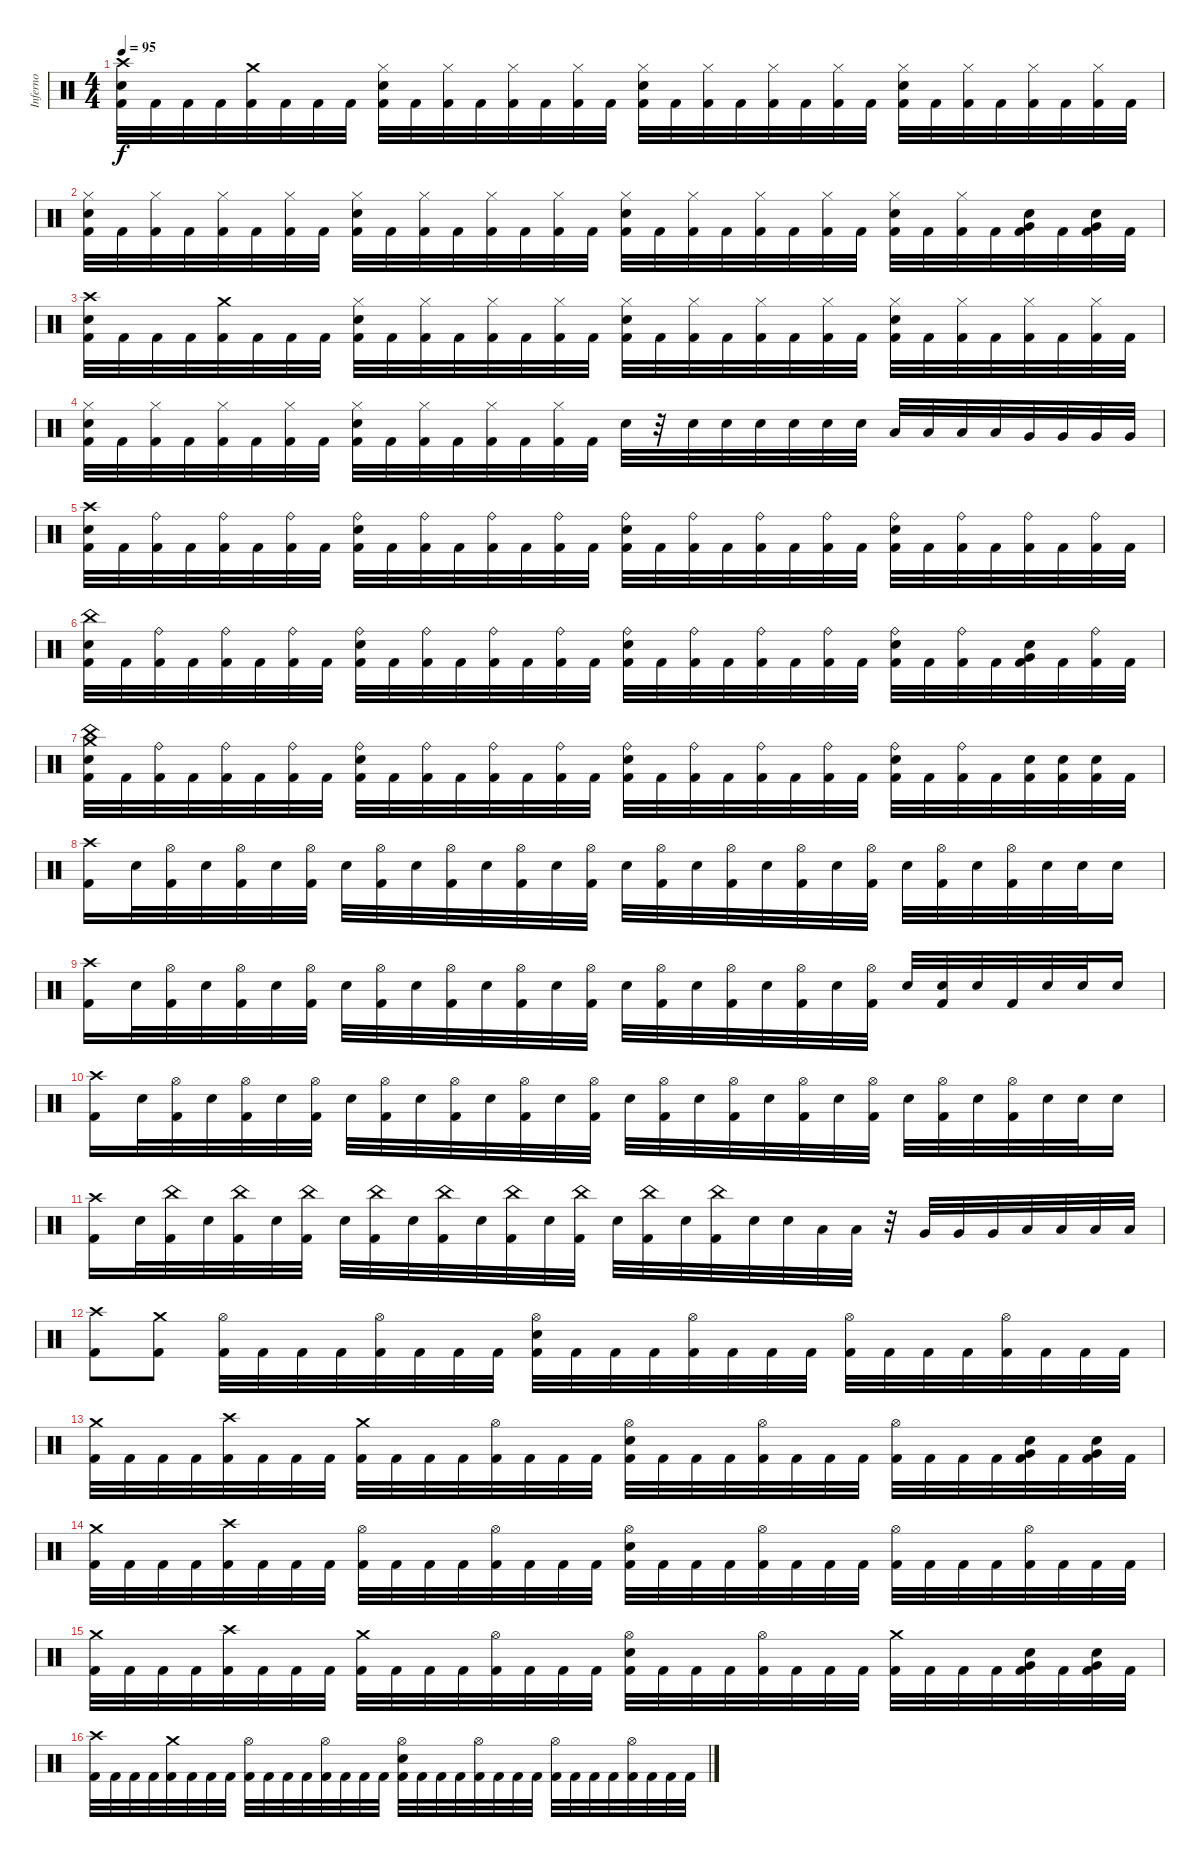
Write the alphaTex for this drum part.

\track ("Inferno" "Inferno") {instrument percussion}
\staff {score}
\articulation defaults
\ts (4 4)
\tempo 95
\clef neutral
\ks c
("Crash high (hit)" "Electric Snare (hit)" "Kick (hit) 2").32{dy f} "Kick (hit) 2".32 "Kick (hit) 2".32 "Kick (hit) 2".32 ("Crash medium (hit)" "Kick (hit) 2").32 "Kick (hit) 2".32 "Kick (hit) 2".32 "Kick (hit) 2".32 ("Hi-Hat (closed)" "Electric Snare (hit)" "Kick (hit) 2").32 "Kick (hit) 2".32 ("Hi-Hat (closed)" "Kick (hit) 2").32 "Kick (hit) 2".32 ("Hi-Hat (closed)" "Kick (hit) 2").32 "Kick (hit) 2".32 ("Hi-Hat (closed)" "Kick (hit) 2").32 "Kick (hit) 2".32 ("Hi-Hat (closed)" "Electric Snare (hit)" "Kick (hit) 2").32 "Kick (hit) 2".32 ("Hi-Hat (closed)" "Kick (hit) 2").32 "Kick (hit) 2".32 ("Hi-Hat (closed)" "Kick (hit) 2").32 "Kick (hit) 2".32 ("Hi-Hat (closed)" "Kick (hit) 2").32 "Kick (hit) 2".32 ("Hi-Hat (closed)" "Electric Snare (hit)" "Kick (hit) 2").32 "Kick (hit) 2".32 ("Hi-Hat (closed)" "Kick (hit) 2").32 "Kick (hit) 2".32 ("Hi-Hat (closed)" "Kick (hit) 2").32 "Kick (hit) 2".32 ("Hi-Hat (closed)" "Kick (hit) 2").32 "Kick (hit) 2".32 |
("Hi-Hat (closed)" "Electric Snare (hit)" "Kick (hit) 2").32 "Kick (hit) 2".32 ("Hi-Hat (closed)" "Kick (hit) 2").32 "Kick (hit) 2".32 ("Hi-Hat (closed)" "Kick (hit) 2").32 "Kick (hit) 2".32 ("Hi-Hat (closed)" "Kick (hit) 2").32 "Kick (hit) 2".32 ("Hi-Hat (closed)" "Electric Snare (hit)" "Kick (hit) 2").32 "Kick (hit) 2".32 ("Hi-Hat (closed)" "Kick (hit) 2").32 "Kick (hit) 2".32 ("Hi-Hat (closed)" "Kick (hit) 2").32 "Kick (hit) 2".32 ("Hi-Hat (closed)" "Kick (hit) 2").32 "Kick (hit) 2".32 ("Hi-Hat (closed)" "Electric Snare (hit)" "Kick (hit) 2").32 "Kick (hit) 2".32 ("Hi-Hat (closed)" "Kick (hit) 2").32 "Kick (hit) 2".32 ("Hi-Hat (closed)" "Kick (hit) 2").32 "Kick (hit) 2".32 ("Hi-Hat (closed)" "Kick (hit) 2").32 "Kick (hit) 2".32 ("Hi-Hat (closed)" "Electric Snare (hit)" "Kick (hit) 2").32 "Kick (hit) 2".32 ("Hi-Hat (closed)" "Kick (hit) 2").32 "Kick (hit) 2".32 ("Very Low Tom (hit)" "Electric Snare (hit)" "Kick (hit) 2").32 "Kick (hit) 2".32 ("Very Low Tom (hit)" "Electric Snare (hit)" "Kick (hit) 2").32 "Kick (hit) 2".32 |
("Crash high (hit)" "Electric Snare (hit)" "Kick (hit) 2").32 "Kick (hit) 2".32 "Kick (hit) 2".32 "Kick (hit) 2".32 ("Crash medium (hit)" "Kick (hit) 2").32 "Kick (hit) 2".32 "Kick (hit) 2".32 "Kick (hit) 2".32 ("Hi-Hat (closed)" "Electric Snare (hit)" "Kick (hit) 2").32 "Kick (hit) 2".32 ("Hi-Hat (closed)" "Kick (hit) 2").32 "Kick (hit) 2".32 ("Hi-Hat (closed)" "Kick (hit) 2").32 "Kick (hit) 2".32 ("Hi-Hat (closed)" "Kick (hit) 2").32 "Kick (hit) 2".32 ("Hi-Hat (closed)" "Electric Snare (hit)" "Kick (hit) 2").32 "Kick (hit) 2".32 ("Hi-Hat (closed)" "Kick (hit) 2").32 "Kick (hit) 2".32 ("Hi-Hat (closed)" "Kick (hit) 2").32 "Kick (hit) 2".32 ("Hi-Hat (closed)" "Kick (hit) 2").32 "Kick (hit) 2".32 ("Hi-Hat (closed)" "Electric Snare (hit)" "Kick (hit) 2").32 "Kick (hit) 2".32 ("Hi-Hat (closed)" "Kick (hit) 2").32 "Kick (hit) 2".32 ("Hi-Hat (closed)" "Kick (hit) 2").32 "Kick (hit) 2".32 ("Hi-Hat (closed)" "Kick (hit) 2").32 "Kick (hit) 2".32 |
("Hi-Hat (closed)" "Electric Snare (hit)" "Kick (hit) 2").32 "Kick (hit) 2".32 ("Hi-Hat (closed)" "Kick (hit) 2").32 "Kick (hit) 2".32 ("Hi-Hat (closed)" "Kick (hit) 2").32 "Kick (hit) 2".32 ("Hi-Hat (closed)" "Kick (hit) 2").32 "Kick (hit) 2".32 ("Hi-Hat (closed)" "Electric Snare (hit)" "Kick (hit) 2").32 "Kick (hit) 2".32 ("Hi-Hat (closed)" "Kick (hit) 2").32 "Kick (hit) 2".32 ("Hi-Hat (closed)" "Kick (hit) 2").32 "Kick (hit) 2".32 ("Hi-Hat (closed)" "Kick (hit) 2").32 "Kick (hit) 2".32 "Electric Snare (hit)".32 r.32 "Electric Snare (hit)".32 "Electric Snare (hit)".32 "Electric Snare (hit)".32 "Electric Snare (hit)".32 "Electric Snare (hit)".32 "Electric Snare (hit)".32 "Low Tom (hit)".32 "Low Tom (hit)".32 "Low Tom (hit)".32 "Low Tom (hit)".32 "Very Low Tom (hit)".32 "Very Low Tom (hit)".32 "Very Low Tom (hit)".32 "Very Low Tom (hit)".32 |
("Crash high (hit)" "Electric Snare (hit)" "Kick (hit) 2").32 "Kick (hit) 2".32 ("Ride (bell)" "Kick (hit) 2").32 "Kick (hit) 2".32 ("Ride (bell)" "Kick (hit) 2").32 "Kick (hit) 2".32 ("Ride (bell)" "Kick (hit) 2").32 "Kick (hit) 2".32 ("Ride (bell)" "Electric Snare (hit)" "Kick (hit) 2").32 "Kick (hit) 2".32 ("Ride (bell)" "Kick (hit) 2").32 "Kick (hit) 2".32 ("Ride (bell)" "Kick (hit) 2").32 "Kick (hit) 2".32 ("Ride (bell)" "Kick (hit) 2").32 "Kick (hit) 2".32 ("Ride (bell)" "Electric Snare (hit)" "Kick (hit) 2").32 "Kick (hit) 2".32 ("Ride (bell)" "Kick (hit) 2").32 "Kick (hit) 2".32 ("Ride (bell)" "Kick (hit) 2").32 "Kick (hit) 2".32 ("Ride (bell)" "Kick (hit) 2").32 "Kick (hit) 2".32 ("Ride (bell)" "Electric Snare (hit)" "Kick (hit) 2").32 "Kick (hit) 2".32 ("Ride (bell)" "Kick (hit) 2").32 "Kick (hit) 2".32 ("Ride (bell)" "Kick (hit) 2").32 "Kick (hit) 2".32 ("Ride (bell)" "Kick (hit) 2").32 "Kick (hit) 2".32 |
("China (hit)" "Electric Snare (hit)" "Kick (hit) 2").32 "Kick (hit) 2".32 ("Ride (bell)" "Kick (hit) 2").32 "Kick (hit) 2".32 ("Ride (bell)" "Kick (hit) 2").32 "Kick (hit) 2".32 ("Ride (bell)" "Kick (hit) 2").32 "Kick (hit) 2".32 ("Ride (bell)" "Electric Snare (hit)" "Kick (hit) 2").32 "Kick (hit) 2".32 ("Ride (bell)" "Kick (hit) 2").32 "Kick (hit) 2".32 ("Ride (bell)" "Kick (hit) 2").32 "Kick (hit) 2".32 ("Ride (bell)" "Kick (hit) 2").32 "Kick (hit) 2".32 ("Ride (bell)" "Electric Snare (hit)" "Kick (hit) 2").32 "Kick (hit) 2".32 ("Ride (bell)" "Kick (hit) 2").32 "Kick (hit) 2".32 ("Ride (bell)" "Kick (hit) 2").32 "Kick (hit) 2".32 ("Ride (bell)" "Kick (hit) 2").32 "Kick (hit) 2".32 ("Ride (bell)" "Electric Snare (hit)" "Kick (hit) 2").32 "Kick (hit) 2".32 ("Ride (bell)" "Kick (hit) 2").32 "Kick (hit) 2".32 ("Very Low Tom (hit)" "Electric Snare (hit)" "Kick (hit) 2").32 "Kick (hit) 2".32 ("Ride (bell)" "Kick (hit) 2").32 "Kick (hit) 2".32 |
("Crash medium (hit)" "China (hit)" "Electric Snare (hit)" "Kick (hit) 2").32 "Kick (hit) 2".32 ("Ride (bell)" "Kick (hit) 2").32 "Kick (hit) 2".32 ("Ride (bell)" "Kick (hit) 2").32 "Kick (hit) 2".32 ("Ride (bell)" "Kick (hit) 2").32 "Kick (hit) 2".32 ("Ride (bell)" "Electric Snare (hit)" "Kick (hit) 2").32 "Kick (hit) 2".32 ("Ride (bell)" "Kick (hit) 2").32 "Kick (hit) 2".32 ("Ride (bell)" "Kick (hit) 2").32 "Kick (hit) 2".32 ("Ride (bell)" "Kick (hit) 2").32 "Kick (hit) 2".32 ("Ride (bell)" "Electric Snare (hit)" "Kick (hit) 2").32 "Kick (hit) 2".32 ("Ride (bell)" "Kick (hit) 2").32 "Kick (hit) 2".32 ("Ride (bell)" "Kick (hit) 2").32 "Kick (hit) 2".32 ("Ride (bell)" "Kick (hit) 2").32 "Kick (hit) 2".32 ("Ride (bell)" "Electric Snare (hit)" "Kick (hit) 2").32 "Kick (hit) 2".32 ("Ride (bell)" "Kick (hit) 2").32 "Kick (hit) 2".32 ("Electric Snare (hit)" "Kick (hit) 2").32 ("Electric Snare (hit)" "Kick (hit) 2").32 ("Electric Snare (hit)" "Kick (hit) 2").32 "Kick (hit) 2".32 |
("Crash high (hit)" "Kick (hit) 2").16 "Electric Snare (hit)".32 ("Hi-Hat (open)" "Kick (hit) 2").32 "Electric Snare (hit)".32 ("Hi-Hat (open)" "Kick (hit) 2").32 "Electric Snare (hit)".32 ("Hi-Hat (open)" "Kick (hit) 2").32 "Electric Snare (hit)".32 ("Hi-Hat (open)" "Kick (hit) 2").32 "Electric Snare (hit)".32 ("Hi-Hat (open)" "Kick (hit) 2").32 "Electric Snare (hit)".32 ("Hi-Hat (open)" "Kick (hit) 2").32 "Electric Snare (hit)".32 ("Hi-Hat (open)" "Kick (hit) 2").32 "Electric Snare (hit)".32 ("Hi-Hat (open)" "Kick (hit) 2").32 "Electric Snare (hit)".32 ("Hi-Hat (open)" "Kick (hit) 2").32 "Electric Snare (hit)".32 ("Hi-Hat (open)" "Kick (hit) 2").32 "Electric Snare (hit)".32 ("Hi-Hat (open)" "Kick (hit) 2").32 "Electric Snare (hit)".32 ("Hi-Hat (open)" "Kick (hit) 2").32 "Electric Snare (hit)".32 ("Hi-Hat (open)" "Kick (hit) 2").32 "Electric Snare (hit)".32 "Electric Snare (hit)".32 "Electric Snare (hit)".16 |
("Crash high (hit)" "Kick (hit) 2").16 "Electric Snare (hit)".32 ("Hi-Hat (open)" "Kick (hit) 2").32 "Electric Snare (hit)".32 ("Hi-Hat (open)" "Kick (hit) 2").32 "Electric Snare (hit)".32 ("Hi-Hat (open)" "Kick (hit) 2").32 "Electric Snare (hit)".32 ("Hi-Hat (open)" "Kick (hit) 2").32 "Electric Snare (hit)".32 ("Hi-Hat (open)" "Kick (hit) 2").32 "Electric Snare (hit)".32 ("Hi-Hat (open)" "Kick (hit) 2").32 "Electric Snare (hit)".32 ("Hi-Hat (open)" "Kick (hit) 2").32 "Electric Snare (hit)".32 ("Hi-Hat (open)" "Kick (hit) 2").32 "Electric Snare (hit)".32 ("Hi-Hat (open)" "Kick (hit) 2").32 "Electric Snare (hit)".32 ("Hi-Hat (open)" "Kick (hit) 2").32 "Electric Snare (hit)".32 ("Hi-Hat (open)" "Kick (hit) 2").32 "Electric Snare (hit)".32 ("Electric Snare (hit)" "Kick (hit) 2").32 "Electric Snare (hit)".32 "Kick (hit) 2".32 "Electric Snare (hit)".32 "Electric Snare (hit)".32 "Electric Snare (hit)".16 |
("Crash high (hit)" "Kick (hit) 2").16 "Electric Snare (hit)".32 ("Hi-Hat (open)" "Kick (hit) 2").32 "Electric Snare (hit)".32 ("Hi-Hat (open)" "Kick (hit) 2").32 "Electric Snare (hit)".32 ("Hi-Hat (open)" "Kick (hit) 2").32 "Electric Snare (hit)".32 ("Hi-Hat (open)" "Kick (hit) 2").32 "Electric Snare (hit)".32 ("Hi-Hat (open)" "Kick (hit) 2").32 "Electric Snare (hit)".32 ("Hi-Hat (open)" "Kick (hit) 2").32 "Electric Snare (hit)".32 ("Hi-Hat (open)" "Kick (hit) 2").32 "Electric Snare (hit)".32 ("Hi-Hat (open)" "Kick (hit) 2").32 "Electric Snare (hit)".32 ("Hi-Hat (open)" "Kick (hit) 2").32 "Electric Snare (hit)".32 ("Hi-Hat (open)" "Kick (hit) 2").32 "Electric Snare (hit)".32 ("Hi-Hat (open)" "Kick (hit) 2").32 "Electric Snare (hit)".32 ("Hi-Hat (open)" "Kick (hit) 2").32 "Electric Snare (hit)".32 ("Hi-Hat (open)" "Kick (hit) 2").32 "Electric Snare (hit)".32 "Electric Snare (hit)".32 "Electric Snare (hit)".16 |
("Crash high (hit)" "Kick (hit) 2").16 "Electric Snare (hit)".32 ("China (hit)" "Kick (hit) 2").32 "Electric Snare (hit)".32 ("China (hit)" "Kick (hit) 2").32 "Electric Snare (hit)".32 ("China (hit)" "Kick (hit) 2").32 "Electric Snare (hit)".32 ("China (hit)" "Kick (hit) 2").32 "Electric Snare (hit)".32 ("China (hit)" "Kick (hit) 2").32 "Electric Snare (hit)".32 ("China (hit)" "Kick (hit) 2").32 "Electric Snare (hit)".32 ("China (hit)" "Kick (hit) 2").32 "Electric Snare (hit)".32 ("China (hit)" "Kick (hit) 2").32 "Electric Snare (hit)".32 ("China (hit)" "Kick (hit) 2").32 "Electric Snare (hit)".32 "Electric Snare (hit)".32 "Low Tom (hit)".32 "Low Tom (hit)".32 r.32 "Very Low Tom (hit)".32 "Very Low Tom (hit)".32 "Very Low Tom (hit)".32 "Low Floor Tom (hit)".32 "Low Floor Tom (hit)".32 "Low Floor Tom (hit)".32 "Low Floor Tom (hit)".32 |
("Crash high (hit)" "Kick (hit) 2").8 ("Crash medium (hit)" "Kick (hit) 2").8 ("Hi-Hat (open)" "Kick (hit) 2").32 "Kick (hit) 2".32 "Kick (hit) 2".32 "Kick (hit) 2".32 ("Hi-Hat (open)" "Kick (hit) 2").32 "Kick (hit) 2".32 "Kick (hit) 2".32 "Kick (hit) 2".32 ("Hi-Hat (open)" "Electric Snare (hit)" "Kick (hit) 2").32 "Kick (hit) 2".32 "Kick (hit) 2".32 "Kick (hit) 2".32 ("Hi-Hat (open)" "Kick (hit) 2").32 "Kick (hit) 2".32 "Kick (hit) 2".32 "Kick (hit) 2".32 ("Hi-Hat (open)" "Kick (hit) 2").32 "Kick (hit) 2".32 "Kick (hit) 2".32 "Kick (hit) 2".32 ("Hi-Hat (open)" "Kick (hit) 2").32 "Kick (hit) 2".32 "Kick (hit) 2".32 "Kick (hit) 2".32 |
("Crash medium (hit)" "Kick (hit) 2").32 "Kick (hit) 2".32 "Kick (hit) 2".32 "Kick (hit) 2".32 ("Crash high (hit)" "Kick (hit) 2").32 "Kick (hit) 2".32 "Kick (hit) 2".32 "Kick (hit) 2".32 ("Crash medium (hit)" "Kick (hit) 2").32 "Kick (hit) 2".32 "Kick (hit) 2".32 "Kick (hit) 2".32 ("Hi-Hat (open)" "Kick (hit) 2").32 "Kick (hit) 2".32 "Kick (hit) 2".32 "Kick (hit) 2".32 ("Hi-Hat (open)" "Electric Snare (hit)" "Kick (hit) 2").32 "Kick (hit) 2".32 "Kick (hit) 2".32 "Kick (hit) 2".32 ("Hi-Hat (open)" "Kick (hit) 2").32 "Kick (hit) 2".32 "Kick (hit) 2".32 "Kick (hit) 2".32 ("Hi-Hat (open)" "Kick (hit) 2").32 "Kick (hit) 2".32 "Kick (hit) 2".32 "Kick (hit) 2".32 ("Very Low Tom (hit)" "Electric Snare (hit)" "Kick (hit) 2").32 "Kick (hit) 2".32 ("Very Low Tom (hit)" "Electric Snare (hit)" "Kick (hit) 2").32 "Kick (hit) 2".32 |
("Crash medium (hit)" "Kick (hit) 2").32 "Kick (hit) 2".32 "Kick (hit) 2".32 "Kick (hit) 2".32 ("Crash high (hit)" "Kick (hit) 2").32 "Kick (hit) 2".32 "Kick (hit) 2".32 "Kick (hit) 2".32 ("Hi-Hat (open)" "Kick (hit) 2").32 "Kick (hit) 2".32 "Kick (hit) 2".32 "Kick (hit) 2".32 ("Hi-Hat (open)" "Kick (hit) 2").32 "Kick (hit) 2".32 "Kick (hit) 2".32 "Kick (hit) 2".32 ("Hi-Hat (open)" "Electric Snare (hit)" "Kick (hit) 2").32 "Kick (hit) 2".32 "Kick (hit) 2".32 "Kick (hit) 2".32 ("Hi-Hat (open)" "Kick (hit) 2").32 "Kick (hit) 2".32 "Kick (hit) 2".32 "Kick (hit) 2".32 ("Hi-Hat (open)" "Kick (hit) 2").32 "Kick (hit) 2".32 "Kick (hit) 2".32 "Kick (hit) 2".32 ("Hi-Hat (open)" "Kick (hit) 2").32 "Kick (hit) 2".32 "Kick (hit) 2".32 "Kick (hit) 2".32 |
("Crash medium (hit)" "Kick (hit) 2").32 "Kick (hit) 2".32 "Kick (hit) 2".32 "Kick (hit) 2".32 ("Crash high (hit)" "Kick (hit) 2").32 "Kick (hit) 2".32 "Kick (hit) 2".32 "Kick (hit) 2".32 ("Crash medium (hit)" "Kick (hit) 2").32 "Kick (hit) 2".32 "Kick (hit) 2".32 "Kick (hit) 2".32 ("Hi-Hat (open)" "Kick (hit) 2").32 "Kick (hit) 2".32 "Kick (hit) 2".32 "Kick (hit) 2".32 ("Hi-Hat (open)" "Electric Snare (hit)" "Kick (hit) 2").32 "Kick (hit) 2".32 "Kick (hit) 2".32 "Kick (hit) 2".32 ("Hi-Hat (open)" "Kick (hit) 2").32 "Kick (hit) 2".32 "Kick (hit) 2".32 "Kick (hit) 2".32 ("Crash medium (hit)" "Kick (hit) 2").32 "Kick (hit) 2".32 "Kick (hit) 2".32 "Kick (hit) 2".32 ("Very Low Tom (hit)" "Electric Snare (hit)" "Kick (hit) 2").32 "Kick (hit) 2".32 ("Very Low Tom (hit)" "Electric Snare (hit)" "Kick (hit) 2").32 "Kick (hit) 2".32 |
("Crash high (hit)" "Kick (hit) 2").32 "Kick (hit) 2".32 "Kick (hit) 2".32 "Kick (hit) 2".32 ("Crash medium (hit)" "Kick (hit) 2").32 "Kick (hit) 2".32 "Kick (hit) 2".32 "Kick (hit) 2".32 ("Hi-Hat (open)" "Kick (hit) 2").32 "Kick (hit) 2".32 "Kick (hit) 2".32 "Kick (hit) 2".32 ("Hi-Hat (open)" "Kick (hit) 2").32 "Kick (hit) 2".32 "Kick (hit) 2".32 "Kick (hit) 2".32 ("Hi-Hat (open)" "Electric Snare (hit)" "Kick (hit) 2").32 "Kick (hit) 2".32 "Kick (hit) 2".32 "Kick (hit) 2".32 ("Hi-Hat (open)" "Kick (hit) 2").32 "Kick (hit) 2".32 "Kick (hit) 2".32 "Kick (hit) 2".32 ("Hi-Hat (open)" "Kick (hit) 2").32 "Kick (hit) 2".32 "Kick (hit) 2".32 "Kick (hit) 2".32 ("Hi-Hat (open)" "Kick (hit) 2").32 "Kick (hit) 2".32 "Kick (hit) 2".32 "Kick (hit) 2".32
